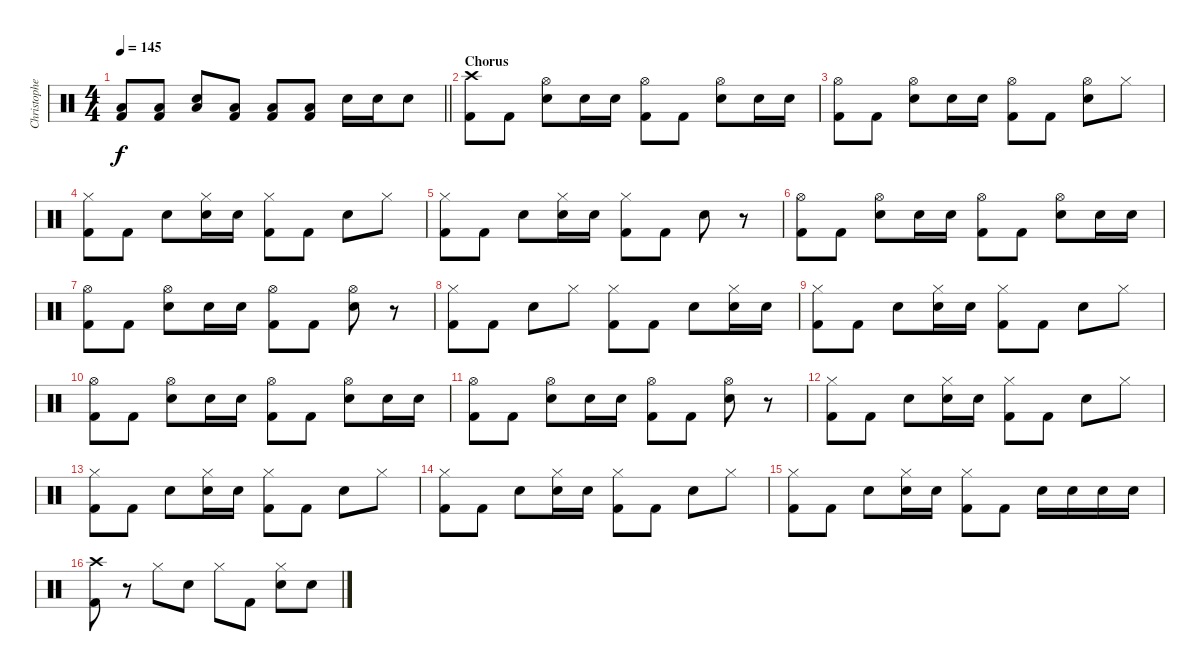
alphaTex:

\track ("Christopher - Drums" "Christophe") {instrument percussion}
\staff {score}
\articulation defaults
\ts (4 4)
\tempo 145
\clef neutral
\barLineRight lightlight
\ks c
("Low Tom (hit)" "Kick (hit) 2").8{dy f} ("Low Tom (hit)" "Kick (hit) 2").8 ("Low Tom (hit)" "Electric Snare (hit)").8 ("Low Tom (hit)" "Kick (hit) 2").8 ("Low Tom (hit)" "Kick (hit) 2").8 ("Low Tom (hit)" "Kick (hit) 2").8 "Electric Snare (hit)".16 "Electric Snare (hit)".16 "Electric Snare (hit)".8 |
\section ("" "Chorus")
("Crash high (hit)" "Kick (hit) 2").8 "Kick (hit) 2".8 ("Hi-Hat (open)" "Electric Snare (hit)").8 "Electric Snare (hit)".16 "Electric Snare (hit)".16 ("Hi-Hat (open)" "Kick (hit) 2").8 "Kick (hit) 2".8 ("Hi-Hat (open)" "Electric Snare (hit)").8 "Electric Snare (hit)".16 "Electric Snare (hit)".16 |
("Hi-Hat (open)" "Kick (hit) 2").8 "Kick (hit) 2".8 ("Hi-Hat (open)" "Electric Snare (hit)").8 "Electric Snare (hit)".16 "Electric Snare (hit)".16 ("Hi-Hat (open)" "Kick (hit) 2").8 "Kick (hit) 2".8 ("Hi-Hat (open)" "Electric Snare (hit)").8 "Hi-Hat (closed)".8 |
("Hi-Hat (closed)" "Kick (hit) 2").8 "Kick (hit) 2".8 "Electric Snare (hit)".8 ("Hi-Hat (closed)" "Electric Snare (hit)").16 "Electric Snare (hit)".16 ("Hi-Hat (closed)" "Kick (hit) 2").8 "Kick (hit) 2".8 "Electric Snare (hit)".8 "Hi-Hat (closed)".8 |
("Hi-Hat (closed)" "Kick (hit) 2").8 "Kick (hit) 2".8 "Electric Snare (hit)".8 ("Hi-Hat (closed)" "Electric Snare (hit)").16 "Electric Snare (hit)".16 ("Hi-Hat (closed)" "Kick (hit) 2").8 "Kick (hit) 2".8 "Electric Snare (hit)".8 r.8 |
("Hi-Hat (open)" "Kick (hit) 2").8 "Kick (hit) 2".8 ("Hi-Hat (open)" "Electric Snare (hit)").8 "Electric Snare (hit)".16 "Electric Snare (hit)".16 ("Hi-Hat (open)" "Kick (hit) 2").8 "Kick (hit) 2".8 ("Hi-Hat (open)" "Electric Snare (hit)").8 "Electric Snare (hit)".16 "Electric Snare (hit)".16 |
("Hi-Hat (open)" "Kick (hit) 2").8 "Kick (hit) 2".8 ("Hi-Hat (open)" "Electric Snare (hit)").8 "Electric Snare (hit)".16 "Electric Snare (hit)".16 ("Hi-Hat (open)" "Kick (hit) 2").8 "Kick (hit) 2".8 ("Hi-Hat (open)" "Electric Snare (hit)").8 r.8 |
("Hi-Hat (closed)" "Kick (hit) 2").8 "Kick (hit) 2".8 "Electric Snare (hit)".8 "Hi-Hat (closed)".8 ("Hi-Hat (closed)" "Kick (hit) 2").8 "Kick (hit) 2".8 "Electric Snare (hit)".8 ("Hi-Hat (closed)" "Electric Snare (hit)").16 "Electric Snare (hit)".16 |
("Hi-Hat (closed)" "Kick (hit) 2").8 "Kick (hit) 2".8 "Electric Snare (hit)".8 ("Hi-Hat (closed)" "Electric Snare (hit)").16 "Electric Snare (hit)".16 ("Hi-Hat (closed)" "Kick (hit) 2").8 "Kick (hit) 2".8 "Electric Snare (hit)".8 "Hi-Hat (closed)".8 |
("Hi-Hat (open)" "Kick (hit) 2").8 "Kick (hit) 2".8 ("Hi-Hat (open)" "Electric Snare (hit)").8 "Electric Snare (hit)".16 "Electric Snare (hit)".16 ("Hi-Hat (open)" "Kick (hit) 2").8 "Kick (hit) 2".8 ("Hi-Hat (open)" "Electric Snare (hit)").8 "Electric Snare (hit)".16 "Electric Snare (hit)".16 |
("Hi-Hat (open)" "Kick (hit) 2").8 "Kick (hit) 2".8 ("Hi-Hat (open)" "Electric Snare (hit)").8 "Electric Snare (hit)".16 "Electric Snare (hit)".16 ("Hi-Hat (open)" "Kick (hit) 2").8 "Kick (hit) 2".8 ("Hi-Hat (open)" "Electric Snare (hit)").8 r.8 |
("Hi-Hat (closed)" "Kick (hit) 2").8 "Kick (hit) 2".8 "Electric Snare (hit)".8 ("Hi-Hat (closed)" "Electric Snare (hit)").16 "Electric Snare (hit)".16 ("Hi-Hat (closed)" "Kick (hit) 2").8 "Kick (hit) 2".8 "Electric Snare (hit)".8 "Hi-Hat (closed)".8 |
("Hi-Hat (closed)" "Kick (hit) 2").8 "Kick (hit) 2".8 "Electric Snare (hit)".8 ("Hi-Hat (closed)" "Electric Snare (hit)").16 "Electric Snare (hit)".16 ("Hi-Hat (closed)" "Kick (hit) 2").8 "Kick (hit) 2".8 "Electric Snare (hit)".8 "Hi-Hat (closed)".8 |
("Hi-Hat (closed)" "Kick (hit) 2").8 "Kick (hit) 2".8 "Electric Snare (hit)".8 ("Hi-Hat (closed)" "Electric Snare (hit)").16 "Electric Snare (hit)".16 ("Hi-Hat (closed)" "Kick (hit) 2").8 "Kick (hit) 2".8 "Electric Snare (hit)".8 "Hi-Hat (closed)".8 |
("Hi-Hat (closed)" "Kick (hit) 2").8 "Kick (hit) 2".8 "Electric Snare (hit)".8 ("Hi-Hat (closed)" "Electric Snare (hit)").16 "Electric Snare (hit)".16 ("Hi-Hat (closed)" "Kick (hit) 2").8 "Kick (hit) 2".8 "Electric Snare (hit)".16 "Electric Snare (hit)".16 "Electric Snare (hit)".16 "Electric Snare (hit)".16 |
("Crash high (hit)" "Kick (hit) 2").8 r.8 "Hi-Hat (closed)".8 "Electric Snare (hit)".8 "Hi-Hat (closed)".8 "Kick (hit) 2".8 ("Hi-Hat (closed)" "Electric Snare (hit)").8 "Electric Snare (hit)".8
